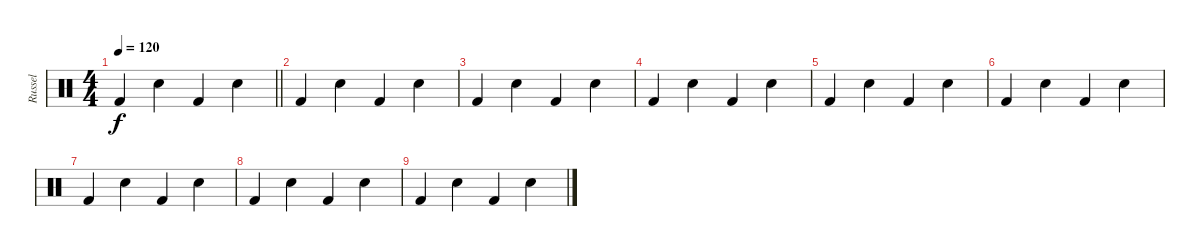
\track ("Russel" "Russel") {instrument percussion}
\staff {score}
\articulation defaults
\ts (4 4)
\tempo 120
\clef neutral
\barLineRight lightlight
\ks c "Kick (hit) 2".4{dy f} "Hand Clap (hit)".4 "Kick (hit) 2".4 "Hand Clap (hit)".4
|
"Kick (hit) 2".4 "Hand Clap (hit)".4 "Kick (hit) 2".4 "Hand Clap (hit)".4 |
"Kick (hit) 2".4 "Hand Clap (hit)".4 "Kick (hit) 2".4 "Hand Clap (hit)".4 |
"Kick (hit) 2".4 "Hand Clap (hit)".4 "Kick (hit) 2".4 "Hand Clap (hit)".4 |
"Kick (hit) 2".4 "Hand Clap (hit)".4 "Kick (hit) 2".4 "Hand Clap (hit)".4 |
"Kick (hit) 2".4 "Hand Clap (hit)".4 "Kick (hit) 2".4 "Hand Clap (hit)".4 |
"Kick (hit) 2".4 "Hand Clap (hit)".4 "Kick (hit) 2".4 "Hand Clap (hit)".4 |
"Kick (hit) 2".4 "Hand Clap (hit)".4 "Kick (hit) 2".4 "Hand Clap (hit)".4 |
"Kick (hit) 2".4 "Hand Clap (hit)".4 "Kick (hit) 2".4 "Hand Clap (hit)".4
